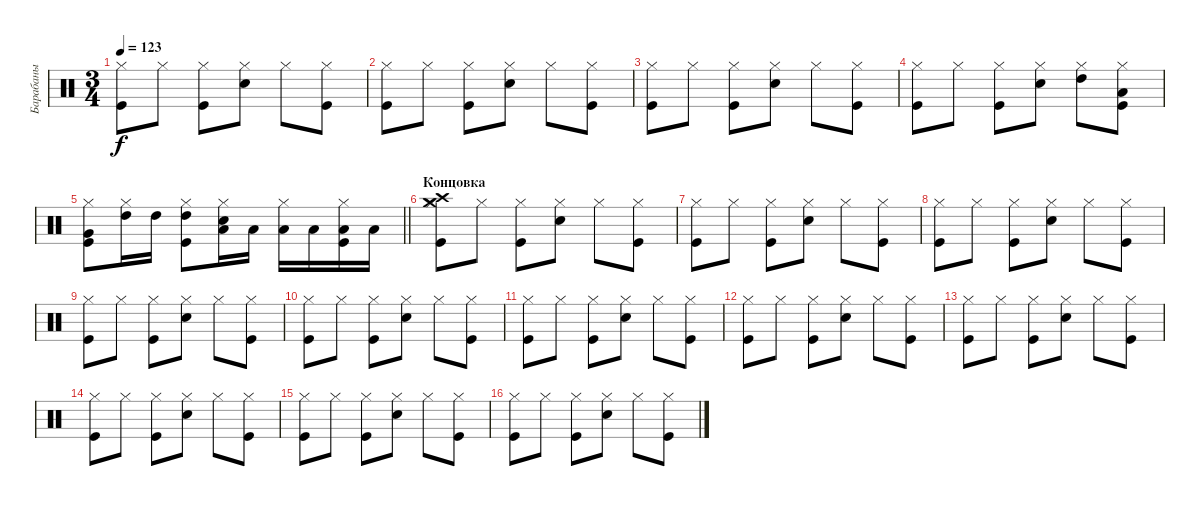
\track ("Барабаны" "Барабаны") {instrument percussion}
\staff {score}
\articulation defaults
\ts (3 4)
\tempo 123
\clef neutral
\ks c
("Kick (hit)" "Hi-Hat (closed)").8{dy f} "Hi-Hat (closed)".8 ("Kick (hit)" "Hi-Hat (closed)").8 ("Snare (hit) 2" "Hi-Hat (closed)").8 "Hi-Hat (closed)".8 ("Kick (hit)" "Hi-Hat (closed)").8 |
("Kick (hit)" "Hi-Hat (closed)").8 "Hi-Hat (closed)".8 ("Kick (hit)" "Hi-Hat (closed)").8 ("Snare (hit) 2" "Hi-Hat (closed)").8 "Hi-Hat (closed)".8 ("Kick (hit)" "Hi-Hat (closed)").8 |
("Kick (hit)" "Hi-Hat (closed)").8 "Hi-Hat (closed)".8 ("Kick (hit)" "Hi-Hat (closed)").8 ("Snare (hit) 2" "Hi-Hat (closed)").8 "Hi-Hat (closed)".8 ("Kick (hit)" "Hi-Hat (closed)").8 |
("Kick (hit)" "Hi-Hat (closed)").8 "Hi-Hat (closed)".8 ("Kick (hit)" "Hi-Hat (closed)").8 ("Snare (hit) 2" "Hi-Hat (closed)").8 ("Hi-Hat (closed)" "High Tom (hit)").8 ("Kick (hit)" "Hi-Hat (closed)" "Low Tom (hit)").8 |
\barLineRight lightlight
("Kick (hit)" "Hi-Hat (closed)" "Very Low Tom (hit)").8 ("Hi-Hat (closed)" "High Tom (hit)").16 "High Tom (hit)".16 ("Kick (hit)" "Hi-Hat (closed)" "High Tom (hit)").8 ("Snare (hit) 2" "Hi-Hat (closed)" "Low Floor Tom (hit)").16 "Low Floor Tom (hit)".16 ("Hi-Hat (closed)" "Low Floor Tom (hit)").16 "Low Floor Tom (hit)".16 ("Kick (hit)" "Hi-Hat (closed)" "Low Floor Tom (hit)").16 "Low Floor Tom (hit)".16 |
\section ("" "Концовка")
("Kick (hit)" "Hi-Hat (closed)" "Crash high (hit)" "Crash medium (hit)").8 "Hi-Hat (closed)".8 ("Kick (hit)" "Hi-Hat (closed)").8 ("Snare (hit) 2" "Hi-Hat (closed)").8 "Hi-Hat (closed)".8 ("Kick (hit)" "Hi-Hat (closed)").8 |
("Kick (hit)" "Hi-Hat (closed)").8 "Hi-Hat (closed)".8 ("Kick (hit)" "Hi-Hat (closed)").8 ("Snare (hit) 2" "Hi-Hat (closed)").8 "Hi-Hat (closed)".8 ("Kick (hit)" "Hi-Hat (closed)").8 |
("Kick (hit)" "Hi-Hat (closed)").8 "Hi-Hat (closed)".8 ("Kick (hit)" "Hi-Hat (closed)").8 ("Snare (hit) 2" "Hi-Hat (closed)").8 "Hi-Hat (closed)".8 ("Kick (hit)" "Hi-Hat (closed)").8 |
("Kick (hit)" "Hi-Hat (closed)").8 "Hi-Hat (closed)".8 ("Kick (hit)" "Hi-Hat (closed)").8 ("Snare (hit) 2" "Hi-Hat (closed)").8 "Hi-Hat (closed)".8 ("Kick (hit)" "Hi-Hat (closed)").8 |
("Kick (hit)" "Hi-Hat (closed)").8 "Hi-Hat (closed)".8 ("Kick (hit)" "Hi-Hat (closed)").8 ("Snare (hit) 2" "Hi-Hat (closed)").8 "Hi-Hat (closed)".8 ("Kick (hit)" "Hi-Hat (closed)").8 |
("Kick (hit)" "Hi-Hat (closed)").8 "Hi-Hat (closed)".8 ("Kick (hit)" "Hi-Hat (closed)").8 ("Snare (hit) 2" "Hi-Hat (closed)").8 "Hi-Hat (closed)".8 ("Kick (hit)" "Hi-Hat (closed)").8 |
("Kick (hit)" "Hi-Hat (closed)").8 "Hi-Hat (closed)".8 ("Kick (hit)" "Hi-Hat (closed)").8 ("Snare (hit) 2" "Hi-Hat (closed)").8 "Hi-Hat (closed)".8 ("Kick (hit)" "Hi-Hat (closed)").8 |
("Kick (hit)" "Hi-Hat (closed)").8 "Hi-Hat (closed)".8 ("Kick (hit)" "Hi-Hat (closed)").8 ("Snare (hit) 2" "Hi-Hat (closed)").8 "Hi-Hat (closed)".8 ("Kick (hit)" "Hi-Hat (closed)").8 |
("Kick (hit)" "Hi-Hat (closed)").8 "Hi-Hat (closed)".8 ("Kick (hit)" "Hi-Hat (closed)").8 ("Snare (hit) 2" "Hi-Hat (closed)").8 "Hi-Hat (closed)".8 ("Kick (hit)" "Hi-Hat (closed)").8 |
("Kick (hit)" "Hi-Hat (closed)").8 "Hi-Hat (closed)".8 ("Kick (hit)" "Hi-Hat (closed)").8 ("Snare (hit) 2" "Hi-Hat (closed)").8 "Hi-Hat (closed)".8 ("Kick (hit)" "Hi-Hat (closed)").8 |
("Kick (hit)" "Hi-Hat (closed)").8 "Hi-Hat (closed)".8 ("Kick (hit)" "Hi-Hat (closed)").8 ("Snare (hit) 2" "Hi-Hat (closed)").8 "Hi-Hat (closed)".8 ("Kick (hit)" "Hi-Hat (closed)").8
